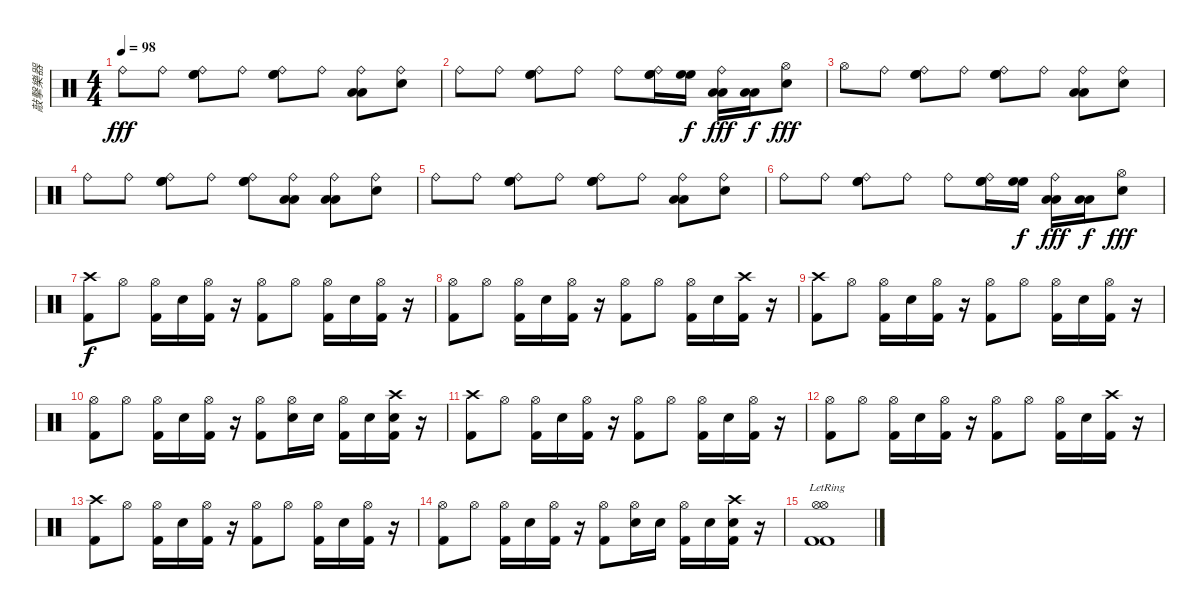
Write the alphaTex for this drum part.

\track ("敲擊樂器" "敲擊樂器") {instrument percussion}
\staff {score}
\articulation defaults
\ts (4 4)
\tempo 98
\clef neutral
\ks c "Ride (bell)".8{dy fff} "Ride (bell)".8
("Ride (bell)" "High Floor Tom (hit)" "High Floor Tom (hit)").8 "Ride (bell)".8 ("Ride (bell)" "High Floor Tom (hit)" "High Floor Tom (hit)").8 "Ride (bell)".8 ("Ride (bell)" "Low Tom (hit)" "Low Tom (hit)").8 ("Ride (bell)" "Snare (hit) 2").8 |
"Ride (bell)".8 "Ride (bell)".8 ("Ride (bell)" "High Floor Tom (hit)" "High Floor Tom (hit)").8 "Ride (bell)".8 "Ride (bell)".8 ("Ride (bell)" "High Floor Tom (hit)" "High Floor Tom (hit)").16 ("High Floor Tom (hit)" "High Floor Tom (hit)").16{dy f} ("Ride (bell)" "Low Tom (hit)" "Low Tom (hit)").16{dy fff} ("Low Tom (hit)" "Low Tom (hit)").16{dy f} ("Hi-Hat (open)" "Snare (hit) 2").8{dy fff} |
"Hi-Hat (open)".8 "Ride (bell)".8 ("Ride (bell)" "High Floor Tom (hit)" "High Floor Tom (hit)").8 "Ride (bell)".8 ("Ride (bell)" "High Floor Tom (hit)" "High Floor Tom (hit)").8 "Ride (bell)".8 ("Ride (bell)" "Low Tom (hit)" "Low Tom (hit)").8 ("Ride (bell)" "Snare (hit) 2").8 |
"Ride (bell)".8 "Ride (bell)".8 ("Ride (bell)" "High Floor Tom (hit)" "High Floor Tom (hit)").8 "Ride (bell)".8 ("Ride (bell)" "High Floor Tom (hit)" "High Floor Tom (hit)").8 ("Ride (bell)" "Low Tom (hit)" "Low Tom (hit)").8 ("Ride (bell)" "Low Tom (hit)" "Low Tom (hit)").8 ("Ride (bell)" "Snare (hit) 2").8 |
"Ride (bell)".8 "Ride (bell)".8 ("Ride (bell)" "High Floor Tom (hit)" "High Floor Tom (hit)").8 "Ride (bell)".8 ("Ride (bell)" "High Floor Tom (hit)" "High Floor Tom (hit)").8 "Ride (bell)".8 ("Ride (bell)" "Low Tom (hit)" "Low Tom (hit)").8 ("Ride (bell)" "Snare (hit) 2").8 |
"Ride (bell)".8 "Ride (bell)".8 ("Ride (bell)" "High Floor Tom (hit)" "High Floor Tom (hit)").8 "Ride (bell)".8 "Ride (bell)".8 ("Ride (bell)" "High Floor Tom (hit)" "High Floor Tom (hit)").16 ("High Floor Tom (hit)" "High Floor Tom (hit)").16{dy f} ("Ride (bell)" "Low Tom (hit)" "Low Tom (hit)").16{dy fff} ("Low Tom (hit)" "Low Tom (hit)").16{dy f} ("Hi-Hat (open)" "Snare (hit) 2").8{dy fff} |
("Kick (hit) 2" "Crash high (hit)").8{dy f} "Hi-Hat (open)".8 ("Kick (hit) 2" "Hi-Hat (open)").16 "Snare (hit) 2".16 ("Kick (hit) 2" "Hi-Hat (open)").16 r.16 ("Kick (hit) 2" "Hi-Hat (open)").8 "Hi-Hat (open)".8 ("Kick (hit) 2" "Hi-Hat (open)").16 "Snare (hit) 2".16 ("Kick (hit) 2" "Hi-Hat (open)").16 r.16 |
("Kick (hit) 2" "Hi-Hat (open)").8 "Hi-Hat (open)".8 ("Kick (hit) 2" "Hi-Hat (open)").16 "Snare (hit) 2".16 ("Kick (hit) 2" "Hi-Hat (open)").16 r.16 ("Kick (hit) 2" "Hi-Hat (open)").8 "Hi-Hat (open)".8 ("Kick (hit) 2" "Hi-Hat (open)").16 "Snare (hit) 2".16 ("Kick (hit) 2" "Crash high (hit)").16 r.16 |
("Kick (hit) 2" "Crash high (hit)").8 "Hi-Hat (open)".8 ("Kick (hit) 2" "Hi-Hat (open)").16 "Snare (hit) 2".16 ("Kick (hit) 2" "Hi-Hat (open)").16 r.16 ("Kick (hit) 2" "Hi-Hat (open)").8 "Hi-Hat (open)".8 ("Kick (hit) 2" "Hi-Hat (open)").16 "Snare (hit) 2".16 ("Kick (hit) 2" "Hi-Hat (open)").16 r.16 |
("Kick (hit) 2" "Hi-Hat (open)").8 "Hi-Hat (open)".8 ("Kick (hit) 2" "Hi-Hat (open)").16 "Snare (hit) 2".16 ("Kick (hit) 2" "Hi-Hat (open)").16 r.16 ("Kick (hit) 2" "Hi-Hat (open)").8 ("Snare (hit) 2" "Hi-Hat (open)").16 "Snare (hit) 2".16 ("Kick (hit) 2" "Hi-Hat (open)").16 "Snare (hit) 2".16 ("Snare (hit) 2" "Kick (hit) 2" "Crash high (hit)").16 r.16 |
("Kick (hit) 2" "Crash high (hit)").8 "Hi-Hat (open)".8 ("Kick (hit) 2" "Hi-Hat (open)").16 "Snare (hit) 2".16 ("Kick (hit) 2" "Hi-Hat (open)").16 r.16 ("Kick (hit) 2" "Hi-Hat (open)").8 "Hi-Hat (open)".8 ("Kick (hit) 2" "Hi-Hat (open)").16 "Snare (hit) 2".16 ("Kick (hit) 2" "Hi-Hat (open)").16 r.16 |
("Kick (hit) 2" "Hi-Hat (open)").8 "Hi-Hat (open)".8 ("Kick (hit) 2" "Hi-Hat (open)").16 "Snare (hit) 2".16 ("Kick (hit) 2" "Hi-Hat (open)").16 r.16 ("Kick (hit) 2" "Hi-Hat (open)").8 "Hi-Hat (open)".8 ("Kick (hit) 2" "Hi-Hat (open)").16 "Snare (hit) 2".16 ("Kick (hit) 2" "Crash high (hit)").16 r.16 |
("Kick (hit) 2" "Crash high (hit)").8 "Hi-Hat (open)".8 ("Kick (hit) 2" "Hi-Hat (open)").16 "Snare (hit) 2".16 ("Kick (hit) 2" "Hi-Hat (open)").16 r.16 ("Kick (hit) 2" "Hi-Hat (open)").8 "Hi-Hat (open)".8 ("Kick (hit) 2" "Hi-Hat (open)").16 "Snare (hit) 2".16 ("Kick (hit) 2" "Hi-Hat (open)").16 r.16 |
("Kick (hit) 2" "Hi-Hat (open)").8 "Hi-Hat (open)".8 ("Kick (hit) 2" "Hi-Hat (open)").16 "Snare (hit) 2".16 ("Kick (hit) 2" "Hi-Hat (open)").16 r.16 ("Kick (hit) 2" "Hi-Hat (open)").8 ("Snare (hit) 2" "Hi-Hat (open)").16 "Snare (hit) 2".16 ("Kick (hit) 2" "Hi-Hat (open)").16 "Snare (hit) 2".16 ("Snare (hit) 2" "Kick (hit) 2" "Crash high (hit)").16 r.16 |
("Hi-Hat (open)"{lr} "Hi-Hat (open)"{lr} "Kick (hit) 2"{lr} "Kick (hit) 2"{lr}).1
